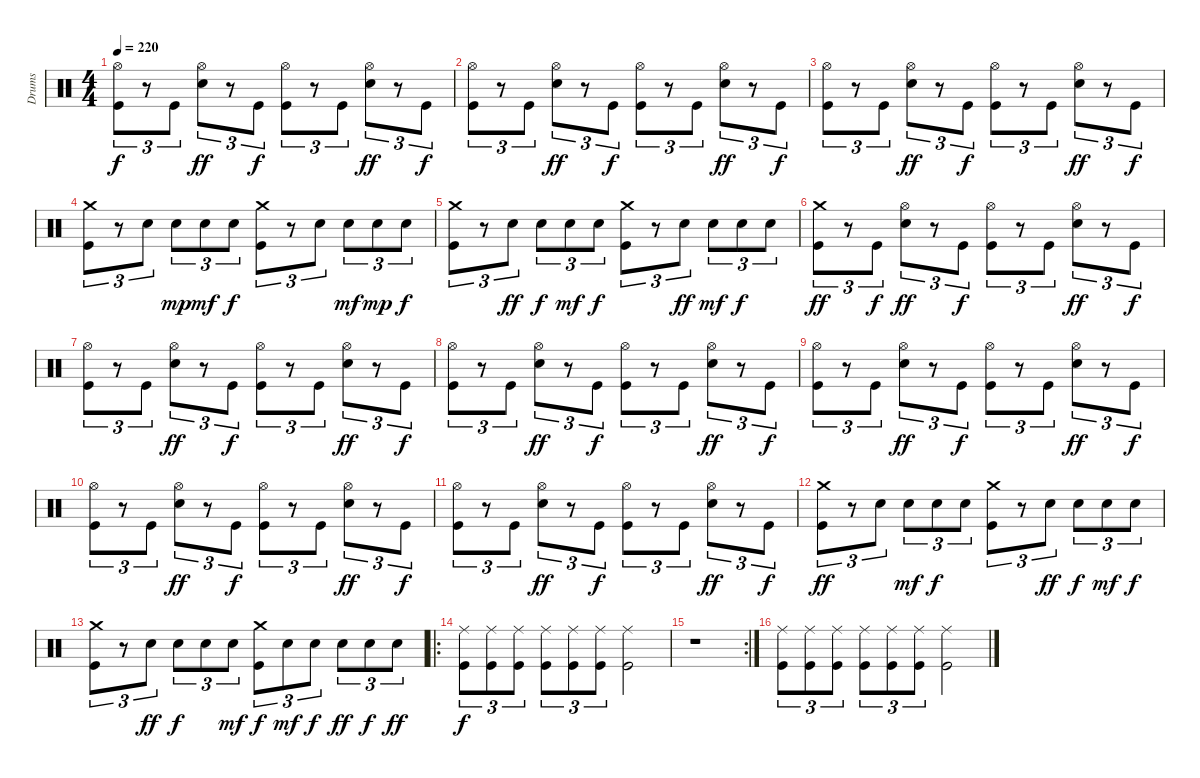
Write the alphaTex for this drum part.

\track ("Drums" "Drums") {instrument percussion}
\staff {score}
\articulation defaults
\ts (4 4)
\tempo 220
\clef neutral
\ks c
("Kick (hit)" "Hi-Hat (open)").8{tu (3 2) dy f} r.8{tu (3 2)} "Kick (hit)".8{tu (3 2)} ("Electric Snare (hit)" "Hi-Hat (open)").8{tu (3 2) dy ff} r.8{tu (3 2)} "Kick (hit)".8{tu (3 2) dy f} ("Kick (hit)" "Hi-Hat (open)").8{tu (3 2)} r.8{tu (3 2)} "Kick (hit)".8{tu (3 2)} ("Electric Snare (hit)" "Hi-Hat (open)").8{tu (3 2) dy ff} r.8{tu (3 2)} "Kick (hit)".8{tu (3 2) dy f} |
("Kick (hit)" "Hi-Hat (open)").8{tu (3 2)} r.8{tu (3 2)} "Kick (hit)".8{tu (3 2)} ("Electric Snare (hit)" "Hi-Hat (open)").8{tu (3 2) dy ff} r.8{tu (3 2)} "Kick (hit)".8{tu (3 2) dy f} ("Kick (hit)" "Hi-Hat (open)").8{tu (3 2)} r.8{tu (3 2)} "Kick (hit)".8{tu (3 2)} ("Electric Snare (hit)" "Hi-Hat (open)").8{tu (3 2) dy ff} r.8{tu (3 2)} "Kick (hit)".8{tu (3 2) dy f} |
("Kick (hit)" "Hi-Hat (open)").8{tu (3 2)} r.8{tu (3 2)} "Kick (hit)".8{tu (3 2)} ("Electric Snare (hit)" "Hi-Hat (open)").8{tu (3 2) dy ff} r.8{tu (3 2)} "Kick (hit)".8{tu (3 2) dy f} ("Kick (hit)" "Hi-Hat (open)").8{tu (3 2)} r.8{tu (3 2)} "Kick (hit)".8{tu (3 2)} ("Electric Snare (hit)" "Hi-Hat (open)").8{tu (3 2) dy ff} r.8{tu (3 2)} "Kick (hit)".8{tu (3 2) dy f} |
("Kick (hit)" "Crash medium (hit)").8{tu (3 2)} r.8{tu (3 2)} "Electric Snare (hit)".8{tu (3 2)} "Electric Snare (hit)".8{tu (3 2) dy mp} "Electric Snare (hit)".8{tu (3 2) dy mf} "Electric Snare (hit)".8{tu (3 2) dy f} ("Kick (hit)" "Crash medium (hit)").8{tu (3 2)} r.8{tu (3 2)} "Electric Snare (hit)".8{tu (3 2)} "Electric Snare (hit)".8{tu (3 2) dy mf} "Electric Snare (hit)".8{tu (3 2) dy mp} "Electric Snare (hit)".8{tu (3 2) dy f} |
("Kick (hit)" "Crash medium (hit)").8{tu (3 2)} r.8{tu (3 2)} "Electric Snare (hit)".8{tu (3 2) dy ff} "Electric Snare (hit)".8{tu (3 2) dy f} "Electric Snare (hit)".8{tu (3 2) dy mf} "Electric Snare (hit)".8{tu (3 2) dy f} ("Kick (hit)" "Crash medium (hit)").8{tu (3 2)} r.8{tu (3 2)} "Electric Snare (hit)".8{tu (3 2) dy ff} "Electric Snare (hit)".8{tu (3 2) dy mf} "Electric Snare (hit)".8{tu (3 2) dy f} "Electric Snare (hit)".8{tu (3 2)} |
("Kick (hit)" "Crash medium (hit)").8{tu (3 2) dy ff} r.8{tu (3 2)} "Kick (hit)".8{tu (3 2) dy f} ("Electric Snare (hit)" "Hi-Hat (open)").8{tu (3 2) dy ff} r.8{tu (3 2)} "Kick (hit)".8{tu (3 2) dy f} ("Kick (hit)" "Hi-Hat (open)").8{tu (3 2)} r.8{tu (3 2)} "Kick (hit)".8{tu (3 2)} ("Electric Snare (hit)" "Hi-Hat (open)").8{tu (3 2) dy ff} r.8{tu (3 2)} "Kick (hit)".8{tu (3 2) dy f} |
("Kick (hit)" "Hi-Hat (open)").8{tu (3 2)} r.8{tu (3 2)} "Kick (hit)".8{tu (3 2)} ("Electric Snare (hit)" "Hi-Hat (open)").8{tu (3 2) dy ff} r.8{tu (3 2)} "Kick (hit)".8{tu (3 2) dy f} ("Kick (hit)" "Hi-Hat (open)").8{tu (3 2)} r.8{tu (3 2)} "Kick (hit)".8{tu (3 2)} ("Electric Snare (hit)" "Hi-Hat (open)").8{tu (3 2) dy ff} r.8{tu (3 2)} "Kick (hit)".8{tu (3 2) dy f} |
("Kick (hit)" "Hi-Hat (open)").8{tu (3 2)} r.8{tu (3 2)} "Kick (hit)".8{tu (3 2)} ("Electric Snare (hit)" "Hi-Hat (open)").8{tu (3 2) dy ff} r.8{tu (3 2)} "Kick (hit)".8{tu (3 2) dy f} ("Kick (hit)" "Hi-Hat (open)").8{tu (3 2)} r.8{tu (3 2)} "Kick (hit)".8{tu (3 2)} ("Electric Snare (hit)" "Hi-Hat (open)").8{tu (3 2) dy ff} r.8{tu (3 2)} "Kick (hit)".8{tu (3 2) dy f} |
("Kick (hit)" "Hi-Hat (open)").8{tu (3 2)} r.8{tu (3 2)} "Kick (hit)".8{tu (3 2)} ("Electric Snare (hit)" "Hi-Hat (open)").8{tu (3 2) dy ff} r.8{tu (3 2)} "Kick (hit)".8{tu (3 2) dy f} ("Kick (hit)" "Hi-Hat (open)").8{tu (3 2)} r.8{tu (3 2)} "Kick (hit)".8{tu (3 2)} ("Electric Snare (hit)" "Hi-Hat (open)").8{tu (3 2) dy ff} r.8{tu (3 2)} "Kick (hit)".8{tu (3 2) dy f} |
("Kick (hit)" "Hi-Hat (open)").8{tu (3 2)} r.8{tu (3 2)} "Kick (hit)".8{tu (3 2)} ("Electric Snare (hit)" "Hi-Hat (open)").8{tu (3 2) dy ff} r.8{tu (3 2)} "Kick (hit)".8{tu (3 2) dy f} ("Kick (hit)" "Hi-Hat (open)").8{tu (3 2)} r.8{tu (3 2)} "Kick (hit)".8{tu (3 2)} ("Electric Snare (hit)" "Hi-Hat (open)").8{tu (3 2) dy ff} r.8{tu (3 2)} "Kick (hit)".8{tu (3 2) dy f} |
("Kick (hit)" "Hi-Hat (open)").8{tu (3 2)} r.8{tu (3 2)} "Kick (hit)".8{tu (3 2)} ("Electric Snare (hit)" "Hi-Hat (open)").8{tu (3 2) dy ff} r.8{tu (3 2)} "Kick (hit)".8{tu (3 2) dy f} ("Kick (hit)" "Hi-Hat (open)").8{tu (3 2)} r.8{tu (3 2)} "Kick (hit)".8{tu (3 2)} ("Electric Snare (hit)" "Hi-Hat (open)").8{tu (3 2) dy ff} r.8{tu (3 2)} "Kick (hit)".8{tu (3 2) dy f} |
("Kick (hit)" "Crash medium (hit)").8{tu (3 2) dy ff} r.8{tu (3 2)} "Electric Snare (hit)".8{tu (3 2)} "Electric Snare (hit)".8{tu (3 2) dy mf} "Electric Snare (hit)".8{tu (3 2) dy f} "Electric Snare (hit)".8{tu (3 2)} ("Kick (hit)" "Crash medium (hit)").8{tu (3 2)} r.8{tu (3 2)} "Electric Snare (hit)".8{tu (3 2) dy ff} "Electric Snare (hit)".8{tu (3 2) dy f} "Electric Snare (hit)".8{tu (3 2) dy mf} "Electric Snare (hit)".8{tu (3 2) dy f} |
("Kick (hit)" "Crash medium (hit)").8{tu (3 2)} r.8{tu (3 2)} "Electric Snare (hit)".8{tu (3 2) dy ff} "Electric Snare (hit)".8{tu (3 2) dy f} "Electric Snare (hit)".8{tu (3 2)} "Electric Snare (hit)".8{tu (3 2) dy mf} ("Kick (hit)" "Crash medium (hit)").8{tu (3 2) dy f} "Electric Snare (hit)".8{tu (3 2) dy mf} "Electric Snare (hit)".8{tu (3 2) dy f} "Electric Snare (hit)".8{tu (3 2) dy ff} "Electric Snare (hit)".8{tu (3 2) dy f} "Electric Snare (hit)".8{tu (3 2) dy ff} |
\ro
("Kick (hit)" "Ride (middle)").8{tu (3 2) dy f} ("Kick (hit)" "Ride (middle)").8{tu (3 2)} ("Kick (hit)" "Ride (middle)").8{tu (3 2)} ("Kick (hit)" "Ride (middle)").8{tu (3 2)} ("Kick (hit)" "Ride (middle)").8{tu (3 2)} ("Kick (hit)" "Ride (middle)").8{tu (3 2)} ("Kick (hit)" "Ride (middle)").2 |
\rc 2
r.1 |
("Kick (hit)" "Ride (middle)").8{tu (3 2)} ("Kick (hit)" "Ride (middle)").8{tu (3 2)} ("Kick (hit)" "Ride (middle)").8{tu (3 2)} ("Kick (hit)" "Ride (middle)").8{tu (3 2)} ("Kick (hit)" "Ride (middle)").8{tu (3 2)} ("Kick (hit)" "Ride (middle)").8{tu (3 2)} ("Kick (hit)" "Ride (middle)").2
